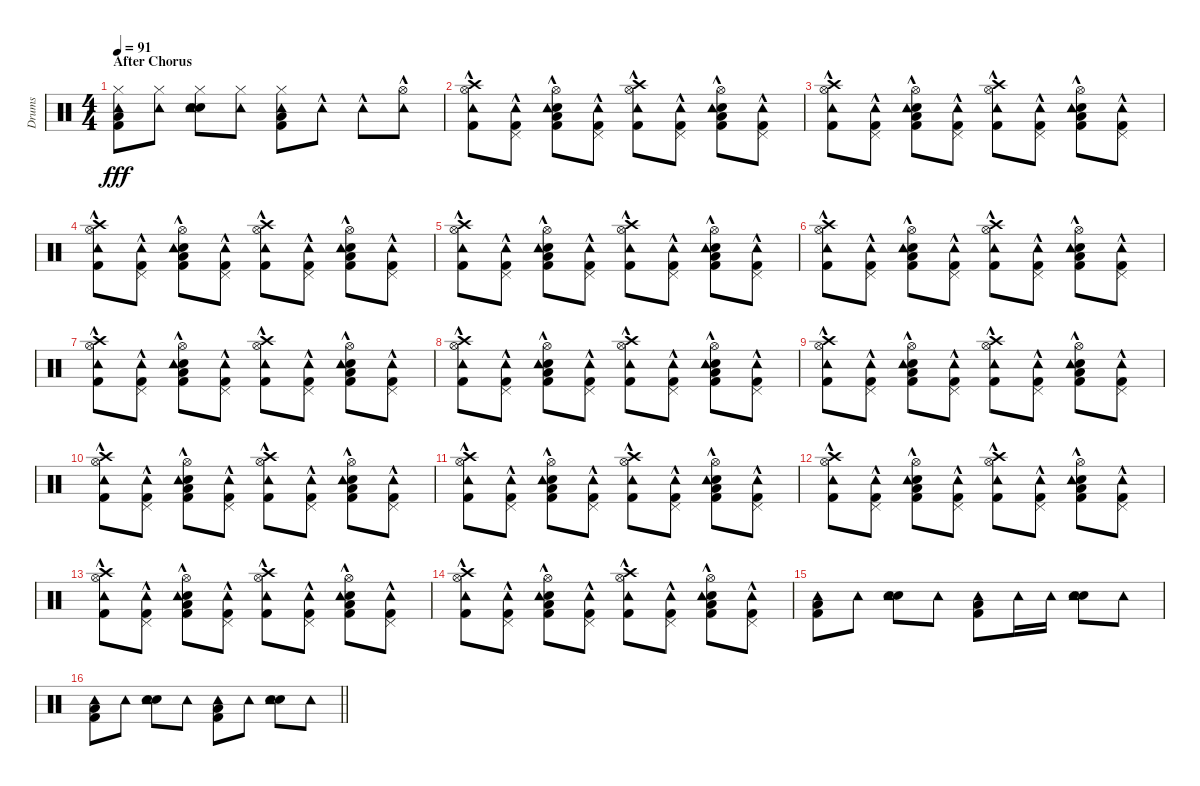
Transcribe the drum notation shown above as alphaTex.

\track ("Drums" "Drums") {instrument percussion}
\staff {score}
\articulation defaults
\ts (4 4)
\section ("" "After Chorus")
\tempo 91
\clef neutral
\ks c
("Hi-Hat (closed)" "Low Floor Tom (hit)" "Kick (hit) 2" "Tambourine (hit)").8{dy fff} ("Hi-Hat (closed)" "Tambourine (hit)").8 ("Hi-Hat (closed)" "Electric Snare (hit)" "Hand Clap (hit)" "Tambourine (hit)").8 ("Hi-Hat (closed)" "Tambourine (hit)").8 ("Hi-Hat (closed)" "Low Floor Tom (hit)" "Kick (hit) 2" "Tambourine (hit)").8 "Tambourine (hit)"{hac}.8 "Tambourine (hit)"{hac}.8 ("Hi-Hat (open)" "Tambourine (hit)"{hac}).8 |
("Crash high (hit)"{hac} "Hi-Hat (open)"{hac} "Kick (hit) 2"{hac} "Tambourine (hit)"{hac}).8 ("Pedal Hi-Hat (hit)" "Kick (hit) 2"{hac} "Tambourine (hit)"{hac}).8 ("Hand Clap (hit)"{hac} "Hi-Hat (open)"{hac} "Low Floor Tom (hit)"{hac} "Kick (hit) 2"{hac} "Tambourine (hit)"{hac}).8 ("Pedal Hi-Hat (hit)" "Kick (hit) 2"{hac} "Tambourine (hit)"{hac}).8 ("Crash high (hit)"{hac} "Hi-Hat (open)"{hac} "Kick (hit) 2"{hac} "Tambourine (hit)"{hac}).8 ("Pedal Hi-Hat (hit)" "Kick (hit) 2"{hac} "Tambourine (hit)"{hac}).8 ("Hand Clap (hit)"{hac} "Hi-Hat (open)"{hac} "Low Floor Tom (hit)"{hac} "Kick (hit) 2"{hac} "Tambourine (hit)"{hac}).8 ("Pedal Hi-Hat (hit)" "Kick (hit) 2"{hac} "Tambourine (hit)"{hac}).8 |
("Crash high (hit)"{hac} "Hi-Hat (open)"{hac} "Kick (hit) 2"{hac} "Tambourine (hit)"{hac}).8 ("Pedal Hi-Hat (hit)" "Kick (hit) 2"{hac} "Tambourine (hit)"{hac}).8 ("Hand Clap (hit)"{hac} "Hi-Hat (open)"{hac} "Low Floor Tom (hit)"{hac} "Kick (hit) 2"{hac} "Tambourine (hit)"{hac}).8 ("Pedal Hi-Hat (hit)" "Kick (hit) 2"{hac} "Tambourine (hit)"{hac}).8 ("Crash high (hit)"{hac} "Hi-Hat (open)"{hac} "Kick (hit) 2"{hac} "Tambourine (hit)"{hac}).8 ("Pedal Hi-Hat (hit)" "Kick (hit) 2"{hac} "Tambourine (hit)"{hac}).8 ("Hand Clap (hit)"{hac} "Hi-Hat (open)"{hac} "Low Floor Tom (hit)"{hac} "Kick (hit) 2"{hac} "Tambourine (hit)"{hac}).8 ("Pedal Hi-Hat (hit)" "Kick (hit) 2"{hac} "Tambourine (hit)"{hac}).8 |
("Crash high (hit)"{hac} "Hi-Hat (open)"{hac} "Kick (hit) 2"{hac} "Tambourine (hit)"{hac}).8 ("Pedal Hi-Hat (hit)" "Kick (hit) 2"{hac} "Tambourine (hit)"{hac}).8 ("Hand Clap (hit)"{hac} "Hi-Hat (open)"{hac} "Low Floor Tom (hit)"{hac} "Kick (hit) 2"{hac} "Tambourine (hit)"{hac}).8 ("Pedal Hi-Hat (hit)" "Kick (hit) 2"{hac} "Tambourine (hit)"{hac}).8 ("Crash high (hit)"{hac} "Hi-Hat (open)"{hac} "Kick (hit) 2"{hac} "Tambourine (hit)"{hac}).8 ("Pedal Hi-Hat (hit)" "Kick (hit) 2"{hac} "Tambourine (hit)"{hac}).8 ("Hand Clap (hit)"{hac} "Hi-Hat (open)"{hac} "Low Floor Tom (hit)"{hac} "Kick (hit) 2"{hac} "Tambourine (hit)"{hac}).8 ("Pedal Hi-Hat (hit)" "Kick (hit) 2"{hac} "Tambourine (hit)"{hac}).8 |
("Crash high (hit)"{hac} "Hi-Hat (open)"{hac} "Kick (hit) 2"{hac} "Tambourine (hit)"{hac}).8 ("Pedal Hi-Hat (hit)" "Kick (hit) 2"{hac} "Tambourine (hit)"{hac}).8 ("Hand Clap (hit)"{hac} "Hi-Hat (open)"{hac} "Low Floor Tom (hit)"{hac} "Kick (hit) 2"{hac} "Tambourine (hit)"{hac}).8 ("Pedal Hi-Hat (hit)" "Kick (hit) 2"{hac} "Tambourine (hit)"{hac}).8 ("Crash high (hit)"{hac} "Hi-Hat (open)"{hac} "Kick (hit) 2"{hac} "Tambourine (hit)"{hac}).8 ("Pedal Hi-Hat (hit)" "Kick (hit) 2"{hac} "Tambourine (hit)"{hac}).8 ("Hand Clap (hit)"{hac} "Hi-Hat (open)"{hac} "Low Floor Tom (hit)"{hac} "Kick (hit) 2"{hac} "Tambourine (hit)"{hac}).8 ("Pedal Hi-Hat (hit)" "Kick (hit) 2"{hac} "Tambourine (hit)"{hac}).8 |
("Crash high (hit)"{hac} "Hi-Hat (open)"{hac} "Kick (hit) 2"{hac} "Tambourine (hit)"{hac}).8 ("Pedal Hi-Hat (hit)" "Kick (hit) 2"{hac} "Tambourine (hit)"{hac}).8 ("Hand Clap (hit)"{hac} "Hi-Hat (open)"{hac} "Low Floor Tom (hit)"{hac} "Kick (hit) 2"{hac} "Tambourine (hit)"{hac}).8 ("Pedal Hi-Hat (hit)" "Kick (hit) 2"{hac} "Tambourine (hit)"{hac}).8 ("Crash high (hit)"{hac} "Hi-Hat (open)"{hac} "Kick (hit) 2"{hac} "Tambourine (hit)"{hac}).8 ("Pedal Hi-Hat (hit)" "Kick (hit) 2"{hac} "Tambourine (hit)"{hac}).8 ("Hand Clap (hit)"{hac} "Hi-Hat (open)"{hac} "Low Floor Tom (hit)"{hac} "Kick (hit) 2"{hac} "Tambourine (hit)"{hac}).8 ("Pedal Hi-Hat (hit)" "Kick (hit) 2"{hac} "Tambourine (hit)"{hac}).8 |
("Crash high (hit)"{hac} "Hi-Hat (open)"{hac} "Kick (hit) 2"{hac} "Tambourine (hit)"{hac}).8 ("Pedal Hi-Hat (hit)" "Kick (hit) 2"{hac} "Tambourine (hit)"{hac}).8 ("Hand Clap (hit)"{hac} "Hi-Hat (open)"{hac} "Low Floor Tom (hit)"{hac} "Kick (hit) 2"{hac} "Tambourine (hit)"{hac}).8 ("Pedal Hi-Hat (hit)" "Kick (hit) 2"{hac} "Tambourine (hit)"{hac}).8 ("Crash high (hit)"{hac} "Hi-Hat (open)"{hac} "Kick (hit) 2"{hac} "Tambourine (hit)"{hac}).8 ("Pedal Hi-Hat (hit)" "Kick (hit) 2"{hac} "Tambourine (hit)"{hac}).8 ("Hand Clap (hit)"{hac} "Hi-Hat (open)"{hac} "Low Floor Tom (hit)"{hac} "Kick (hit) 2"{hac} "Tambourine (hit)"{hac}).8 ("Pedal Hi-Hat (hit)" "Kick (hit) 2"{hac} "Tambourine (hit)"{hac}).8 |
("Crash high (hit)"{hac} "Hi-Hat (open)"{hac} "Kick (hit) 2"{hac} "Tambourine (hit)"{hac}).8 ("Pedal Hi-Hat (hit)" "Kick (hit) 2"{hac} "Tambourine (hit)"{hac}).8 ("Hand Clap (hit)"{hac} "Hi-Hat (open)"{hac} "Low Floor Tom (hit)"{hac} "Kick (hit) 2"{hac} "Tambourine (hit)"{hac}).8 ("Pedal Hi-Hat (hit)" "Kick (hit) 2"{hac} "Tambourine (hit)"{hac}).8 ("Crash high (hit)"{hac} "Hi-Hat (open)"{hac} "Kick (hit) 2"{hac} "Tambourine (hit)"{hac}).8 ("Pedal Hi-Hat (hit)" "Kick (hit) 2"{hac} "Tambourine (hit)"{hac}).8 ("Hand Clap (hit)"{hac} "Hi-Hat (open)"{hac} "Low Floor Tom (hit)"{hac} "Kick (hit) 2"{hac} "Tambourine (hit)"{hac}).8 ("Pedal Hi-Hat (hit)" "Kick (hit) 2"{hac} "Tambourine (hit)"{hac}).8 |
("Crash high (hit)"{hac} "Hi-Hat (open)"{hac} "Kick (hit) 2"{hac} "Tambourine (hit)"{hac}).8 ("Pedal Hi-Hat (hit)" "Kick (hit) 2"{hac} "Tambourine (hit)"{hac}).8 ("Hand Clap (hit)"{hac} "Hi-Hat (open)"{hac} "Low Floor Tom (hit)"{hac} "Kick (hit) 2"{hac} "Tambourine (hit)"{hac}).8 ("Pedal Hi-Hat (hit)" "Kick (hit) 2"{hac} "Tambourine (hit)"{hac}).8 ("Crash high (hit)"{hac} "Hi-Hat (open)"{hac} "Kick (hit) 2"{hac} "Tambourine (hit)"{hac}).8 ("Pedal Hi-Hat (hit)" "Kick (hit) 2"{hac} "Tambourine (hit)"{hac}).8 ("Hand Clap (hit)"{hac} "Hi-Hat (open)"{hac} "Low Floor Tom (hit)"{hac} "Kick (hit) 2"{hac} "Tambourine (hit)"{hac}).8 ("Pedal Hi-Hat (hit)" "Kick (hit) 2"{hac} "Tambourine (hit)"{hac}).8 |
("Crash high (hit)"{hac} "Hi-Hat (open)"{hac} "Kick (hit) 2"{hac} "Tambourine (hit)"{hac}).8 ("Pedal Hi-Hat (hit)" "Kick (hit) 2"{hac} "Tambourine (hit)"{hac}).8 ("Hand Clap (hit)"{hac} "Hi-Hat (open)"{hac} "Low Floor Tom (hit)"{hac} "Kick (hit) 2"{hac} "Tambourine (hit)"{hac}).8 ("Pedal Hi-Hat (hit)" "Kick (hit) 2"{hac} "Tambourine (hit)"{hac}).8 ("Crash high (hit)"{hac} "Hi-Hat (open)"{hac} "Kick (hit) 2"{hac} "Tambourine (hit)"{hac}).8 ("Pedal Hi-Hat (hit)" "Kick (hit) 2"{hac} "Tambourine (hit)"{hac}).8 ("Hand Clap (hit)"{hac} "Hi-Hat (open)"{hac} "Low Floor Tom (hit)"{hac} "Kick (hit) 2"{hac} "Tambourine (hit)"{hac}).8 ("Pedal Hi-Hat (hit)" "Kick (hit) 2"{hac} "Tambourine (hit)"{hac}).8 |
("Crash high (hit)"{hac} "Hi-Hat (open)"{hac} "Kick (hit) 2"{hac} "Tambourine (hit)"{hac}).8 ("Pedal Hi-Hat (hit)" "Kick (hit) 2"{hac} "Tambourine (hit)"{hac}).8 ("Hand Clap (hit)"{hac} "Hi-Hat (open)"{hac} "Low Floor Tom (hit)"{hac} "Kick (hit) 2"{hac} "Tambourine (hit)"{hac}).8 ("Pedal Hi-Hat (hit)" "Kick (hit) 2"{hac} "Tambourine (hit)"{hac}).8 ("Crash high (hit)"{hac} "Hi-Hat (open)"{hac} "Kick (hit) 2"{hac} "Tambourine (hit)"{hac}).8 ("Pedal Hi-Hat (hit)" "Kick (hit) 2"{hac} "Tambourine (hit)"{hac}).8 ("Hand Clap (hit)"{hac} "Hi-Hat (open)"{hac} "Low Floor Tom (hit)"{hac} "Kick (hit) 2"{hac} "Tambourine (hit)"{hac}).8 ("Pedal Hi-Hat (hit)" "Kick (hit) 2"{hac} "Tambourine (hit)"{hac}).8 |
("Crash high (hit)"{hac} "Hi-Hat (open)"{hac} "Kick (hit) 2"{hac} "Tambourine (hit)"{hac}).8 ("Pedal Hi-Hat (hit)" "Kick (hit) 2"{hac} "Tambourine (hit)"{hac}).8 ("Hand Clap (hit)"{hac} "Hi-Hat (open)"{hac} "Low Floor Tom (hit)"{hac} "Kick (hit) 2"{hac} "Tambourine (hit)"{hac}).8 ("Pedal Hi-Hat (hit)" "Kick (hit) 2"{hac} "Tambourine (hit)"{hac}).8 ("Crash high (hit)"{hac} "Hi-Hat (open)"{hac} "Kick (hit) 2"{hac} "Tambourine (hit)"{hac}).8 ("Pedal Hi-Hat (hit)" "Kick (hit) 2"{hac} "Tambourine (hit)"{hac}).8 ("Hand Clap (hit)"{hac} "Hi-Hat (open)"{hac} "Low Floor Tom (hit)"{hac} "Kick (hit) 2"{hac} "Tambourine (hit)"{hac}).8 ("Pedal Hi-Hat (hit)" "Kick (hit) 2"{hac} "Tambourine (hit)"{hac}).8 |
("Crash high (hit)"{hac} "Hi-Hat (open)"{hac} "Kick (hit) 2"{hac} "Tambourine (hit)"{hac}).8 ("Pedal Hi-Hat (hit)" "Kick (hit) 2"{hac} "Tambourine (hit)"{hac}).8 ("Hand Clap (hit)"{hac} "Hi-Hat (open)"{hac} "Low Floor Tom (hit)"{hac} "Kick (hit) 2"{hac} "Tambourine (hit)"{hac}).8 ("Pedal Hi-Hat (hit)" "Kick (hit) 2"{hac} "Tambourine (hit)"{hac}).8 ("Crash high (hit)"{hac} "Hi-Hat (open)"{hac} "Kick (hit) 2"{hac} "Tambourine (hit)"{hac}).8 ("Pedal Hi-Hat (hit)" "Kick (hit) 2"{hac} "Tambourine (hit)"{hac}).8 ("Hand Clap (hit)"{hac} "Hi-Hat (open)"{hac} "Low Floor Tom (hit)"{hac} "Kick (hit) 2"{hac} "Tambourine (hit)"{hac}).8 ("Pedal Hi-Hat (hit)" "Kick (hit) 2"{hac} "Tambourine (hit)"{hac}).8 |
("Crash high (hit)"{hac} "Hi-Hat (open)"{hac} "Kick (hit) 2"{hac} "Tambourine (hit)"{hac}).8 ("Pedal Hi-Hat (hit)" "Kick (hit) 2"{hac} "Tambourine (hit)"{hac}).8 ("Hand Clap (hit)"{hac} "Hi-Hat (open)"{hac} "Low Floor Tom (hit)"{hac} "Kick (hit) 2"{hac} "Tambourine (hit)"{hac}).8 ("Pedal Hi-Hat (hit)" "Kick (hit) 2"{hac} "Tambourine (hit)"{hac}).8 ("Crash high (hit)"{hac} "Hi-Hat (open)"{hac} "Kick (hit) 2"{hac} "Tambourine (hit)"{hac}).8 ("Pedal Hi-Hat (hit)" "Kick (hit) 2"{hac} "Tambourine (hit)"{hac}).8 ("Hand Clap (hit)"{hac} "Hi-Hat (open)"{hac} "Low Floor Tom (hit)"{hac} "Kick (hit) 2"{hac} "Tambourine (hit)"{hac}).8 ("Pedal Hi-Hat (hit)" "Kick (hit) 2"{hac} "Tambourine (hit)"{hac}).8 |
("Low Floor Tom (hit)" "Kick (hit) 2" "Tambourine (hit)").8 "Tambourine (hit)".8 ("Electric Snare (hit)" "Hand Clap (hit)" "Tambourine (hit)").8 "Tambourine (hit)".8 ("Low Floor Tom (hit)" "Kick (hit) 2" "Tambourine (hit)").8 "Tambourine (hit)".16 "Tambourine (hit)".16 ("Electric Snare (hit)" "Hand Clap (hit)" "Tambourine (hit)").8 "Tambourine (hit)".8 |
\barLineRight lightlight
("Low Floor Tom (hit)" "Kick (hit) 2" "Tambourine (hit)").8 "Tambourine (hit)".8 ("Electric Snare (hit)" "Hand Clap (hit)" "Tambourine (hit)").8 "Tambourine (hit)".8 ("Low Floor Tom (hit)" "Kick (hit) 2" "Tambourine (hit)").8 "Tambourine (hit)".8 ("Electric Snare (hit)" "Hand Clap (hit)" "Tambourine (hit)").8 "Tambourine (hit)".8
